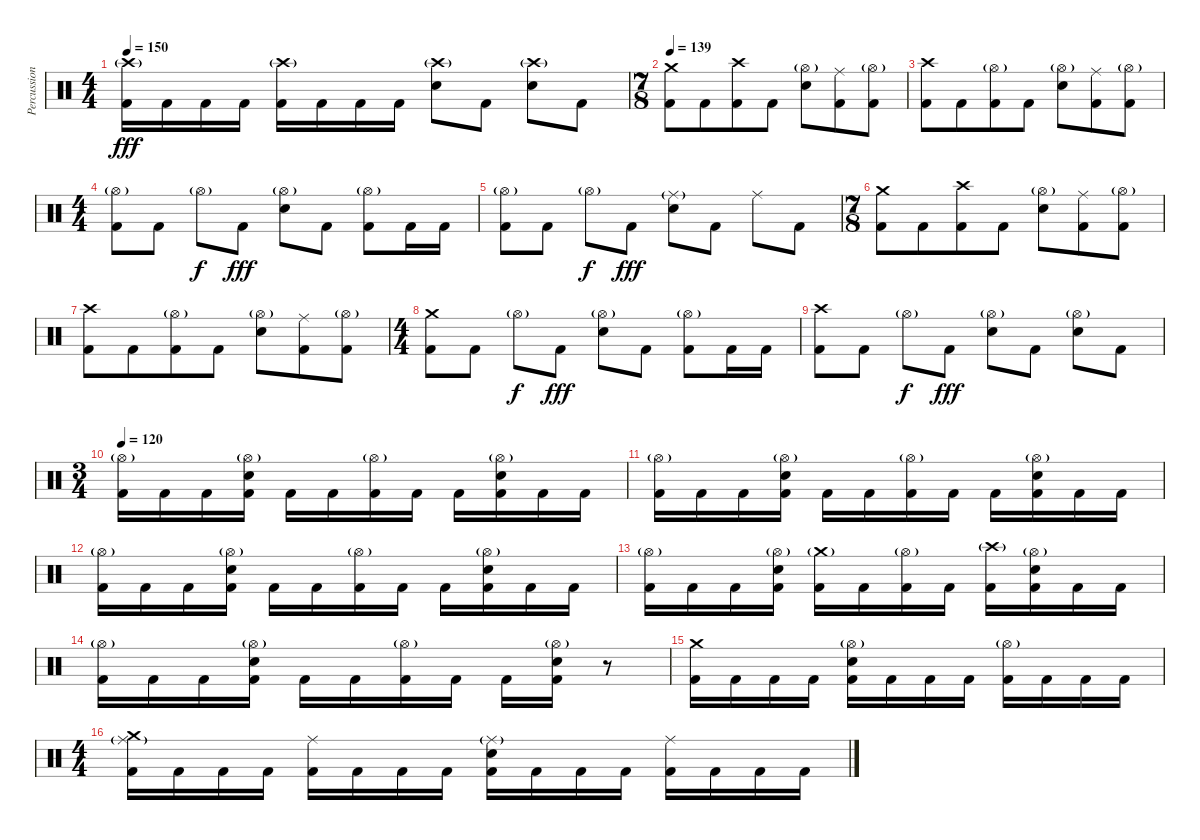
\track ("Percussion" "Percussion") {instrument percussion}
\staff {score}
\articulation defaults
\ts (4 4)
\tempo 150
\clef neutral
\ks c
("Crash high (hit)"{g} "Kick (hit) 2").16{dy fff} "Kick (hit) 2".16 "Kick (hit) 2".16 "Kick (hit) 2".16 ("Crash high (hit)"{g} "Kick (hit) 2").16 "Kick (hit) 2".16 "Kick (hit) 2".16 "Kick (hit) 2".16 ("Crash high (hit)"{g} "Electric Snare (hit)").8 "Kick (hit) 2".8 ("Crash high (hit)"{g} "Electric Snare (hit)").8 "Kick (hit) 2".8 |
\ts (7 8)
\tempo 139
("Crash medium (hit)" "Kick (hit) 2").8 "Kick (hit) 2".8 ("Crash high (hit)" "Kick (hit) 2").8 "Kick (hit) 2".8 ("Hi-Hat (open)"{g} "Electric Snare (hit)").8 ("Ride (middle)" "Kick (hit) 2").8 ("Hi-Hat (open)"{g} "Kick (hit) 2").8 |
("Crash high (hit)" "Kick (hit) 2").8 "Kick (hit) 2".8 ("Hi-Hat (open)"{g} "Kick (hit) 2").8 "Kick (hit) 2".8 ("Hi-Hat (open)"{g} "Electric Snare (hit)").8 ("Ride (middle)" "Kick (hit) 2").8 ("Hi-Hat (open)"{g} "Kick (hit) 2").8 |
\ts (4 4)
("Hi-Hat (open)"{g} "Kick (hit) 2").8 "Kick (hit) 2".8 "Hi-Hat (open)"{g}.8{dy f} "Kick (hit) 2".8{dy fff} ("Hi-Hat (open)"{g} "Electric Snare (hit)").8 "Kick (hit) 2".8 ("Hi-Hat (open)"{g} "Kick (hit) 2").8 "Kick (hit) 2".16 "Kick (hit) 2".16 |
("Hi-Hat (open)"{g} "Kick (hit) 2").8 "Kick (hit) 2".8 "Hi-Hat (open)"{g}.8{dy f} "Kick (hit) 2".8{dy fff} ("Ride (middle)"{g} "Electric Snare (hit)").8 "Kick (hit) 2".8 "Ride (middle)".8 "Kick (hit) 2".8 |
\ts (7 8)
("Crash medium (hit)" "Kick (hit) 2").8 "Kick (hit) 2".8 ("Crash high (hit)" "Kick (hit) 2").8 "Kick (hit) 2".8 ("Hi-Hat (open)"{g} "Electric Snare (hit)").8 ("Ride (middle)" "Kick (hit) 2").8 ("Hi-Hat (open)"{g} "Kick (hit) 2").8 |
("Crash high (hit)" "Kick (hit) 2").8 "Kick (hit) 2".8 ("Hi-Hat (open)"{g} "Kick (hit) 2").8 "Kick (hit) 2".8 ("Hi-Hat (open)"{g} "Electric Snare (hit)").8 ("Ride (middle)" "Kick (hit) 2").8 ("Hi-Hat (open)"{g} "Kick (hit) 2").8 |
\ts (4 4)
("Crash medium (hit)" "Kick (hit) 2").8 "Kick (hit) 2".8 "Hi-Hat (open)"{g}.8{dy f} "Kick (hit) 2".8{dy fff} ("Hi-Hat (open)"{g} "Electric Snare (hit)").8 "Kick (hit) 2".8 ("Hi-Hat (open)"{g} "Kick (hit) 2").8 "Kick (hit) 2".16 "Kick (hit) 2".16 |
("Crash high (hit)" "Kick (hit) 2").8 "Kick (hit) 2".8 "Hi-Hat (open)"{g}.8{dy f} "Kick (hit) 2".8{dy fff} ("Hi-Hat (open)"{g} "Electric Snare (hit)").8 "Kick (hit) 2".8 ("Hi-Hat (open)"{g} "Electric Snare (hit)").8 "Kick (hit) 2".8 |
\ts (3 4)
\tempo 120
("Hi-Hat (open)"{g} "Kick (hit) 2").16 "Kick (hit) 2".16 "Kick (hit) 2".16 ("Hi-Hat (open)"{g} "Electric Snare (hit)" "Kick (hit) 2").16 "Kick (hit) 2".16 "Kick (hit) 2".16 ("Hi-Hat (open)"{g} "Kick (hit) 2").16 "Kick (hit) 2".16 "Kick (hit) 2".16 ("Hi-Hat (open)"{g} "Electric Snare (hit)" "Kick (hit) 2").16 "Kick (hit) 2".16 "Kick (hit) 2".16 |
("Hi-Hat (open)"{g} "Kick (hit) 2").16 "Kick (hit) 2".16 "Kick (hit) 2".16 ("Hi-Hat (open)"{g} "Electric Snare (hit)" "Kick (hit) 2").16 "Kick (hit) 2".16 "Kick (hit) 2".16 ("Hi-Hat (open)"{g} "Kick (hit) 2").16 "Kick (hit) 2".16 "Kick (hit) 2".16 ("Hi-Hat (open)"{g} "Electric Snare (hit)" "Kick (hit) 2").16 "Kick (hit) 2".16 "Kick (hit) 2".16 |
("Hi-Hat (open)"{g} "Kick (hit) 2").16 "Kick (hit) 2".16 "Kick (hit) 2".16 ("Hi-Hat (open)"{g} "Electric Snare (hit)" "Kick (hit) 2").16 "Kick (hit) 2".16 "Kick (hit) 2".16 ("Hi-Hat (open)"{g} "Kick (hit) 2").16 "Kick (hit) 2".16 "Kick (hit) 2".16 ("Hi-Hat (open)"{g} "Electric Snare (hit)" "Kick (hit) 2").16 "Kick (hit) 2".16 "Kick (hit) 2".16 |
("Hi-Hat (open)"{g} "Kick (hit) 2").16 "Kick (hit) 2".16 "Kick (hit) 2".16 ("Hi-Hat (open)"{g} "Electric Snare (hit)" "Kick (hit) 2").16 ("Crash medium (hit)"{g} "Kick (hit) 2").16 "Kick (hit) 2".16 ("Hi-Hat (open)"{g} "Kick (hit) 2").16 "Kick (hit) 2".16 ("Crash high (hit)"{g} "Kick (hit) 2").16 ("Hi-Hat (open)"{g} "Electric Snare (hit)" "Kick (hit) 2").16 "Kick (hit) 2".16 "Kick (hit) 2".16 |
("Hi-Hat (open)"{g} "Kick (hit) 2").16 "Kick (hit) 2".16 "Kick (hit) 2".16 ("Hi-Hat (open)"{g} "Electric Snare (hit)" "Kick (hit) 2").16 "Kick (hit) 2".16 "Kick (hit) 2".16 ("Hi-Hat (open)"{g} "Kick (hit) 2").16 "Kick (hit) 2".16 "Kick (hit) 2".16 ("Hi-Hat (open)"{g} "Electric Snare (hit)" "Kick (hit) 2").16 r.8 |
("Crash medium (hit)" "Kick (hit) 2").16 "Kick (hit) 2".16 "Kick (hit) 2".16 "Kick (hit) 2".16 ("Hi-Hat (open)"{g} "Electric Snare (hit)" "Kick (hit) 2").16 "Kick (hit) 2".16 "Kick (hit) 2".16 "Kick (hit) 2".16 ("Hi-Hat (open)"{g} "Kick (hit) 2").16 "Kick (hit) 2".16 "Kick (hit) 2".16 "Kick (hit) 2".16 |
\ts (4 4)
("Crash medium (hit)" "Ride (middle)"{g} "Kick (hit) 2").16 "Kick (hit) 2".16 "Kick (hit) 2".16 "Kick (hit) 2".16 ("Ride (middle)" "Kick (hit) 2").16 "Kick (hit) 2".16 "Kick (hit) 2".16 "Kick (hit) 2".16 ("Ride (middle)"{g} "Electric Snare (hit)" "Kick (hit) 2").16 "Kick (hit) 2".16 "Kick (hit) 2".16 "Kick (hit) 2".16 ("Ride (middle)" "Kick (hit) 2").16 "Kick (hit) 2".16 "Kick (hit) 2".16 "Kick (hit) 2".16
